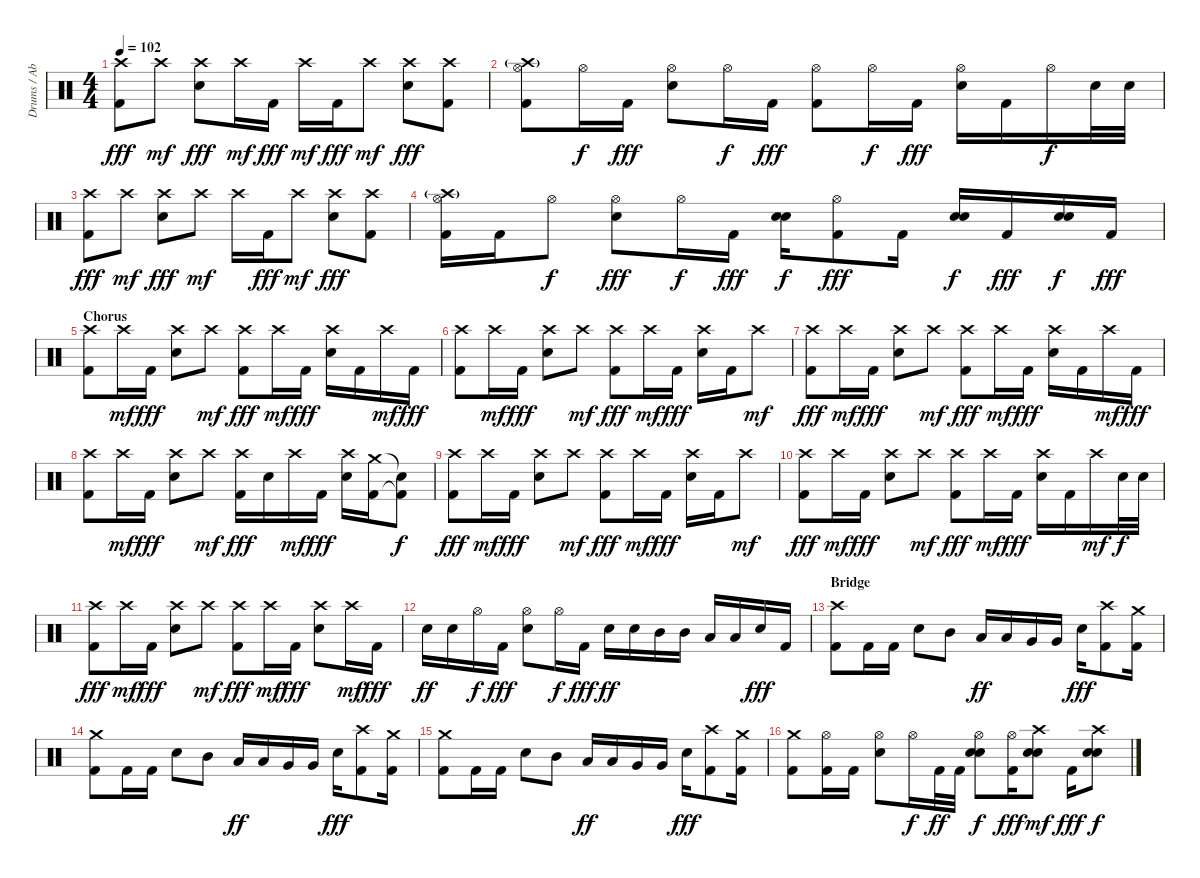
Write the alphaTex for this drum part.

\track ("Drums / Abe Cunningham" "Drums / Ab") {instrument percussion}
\staff {score}
\articulation defaults
\ts (4 4)
\tempo 102
\clef neutral
\ks c
("Crash high (hit)" "Kick (hit) 2").8{dy fff} "Crash high (hit)".8{dy mf} ("Crash high (hit)" "Electric Snare (hit)").8{dy fff} "Crash high (hit)".16{dy mf} "Kick (hit) 2".16{dy fff} "Crash high (hit)".16{dy mf} "Kick (hit) 2".16{dy fff} "Crash high (hit)".8{dy mf} ("Crash high (hit)" "Electric Snare (hit)").8{dy fff} ("Crash high (hit)" "Kick (hit) 2").8 |
("Crash high (hit)"{g} "Hi-Hat (open)" "Kick (hit) 2").8 "Hi-Hat (open)".16{dy f} "Kick (hit) 2".16{dy fff} ("Hi-Hat (open)" "Electric Snare (hit)").8 "Hi-Hat (open)".16{dy f} "Kick (hit) 2".16{dy fff} ("Hi-Hat (open)" "Kick (hit) 2").8 "Hi-Hat (open)".16{dy f} "Kick (hit) 2".16{dy fff} ("Hi-Hat (open)" "Electric Snare (hit)").16 "Kick (hit) 2".16 "Hi-Hat (open)".16{dy f} "Electric Snare (hit)".32 "Electric Snare (hit)".32 |
("Crash high (hit)" "Kick (hit) 2").8{dy fff} "Crash high (hit)".8{dy mf} ("Crash high (hit)" "Electric Snare (hit)").8{dy fff} "Crash high (hit)".8{dy mf} "Crash high (hit)".16 "Kick (hit) 2".16{dy fff} "Crash high (hit)".8{dy mf} ("Crash high (hit)" "Electric Snare (hit)").8{dy fff} ("Crash high (hit)" "Kick (hit) 2").8 |
("Crash high (hit)"{g} "Hi-Hat (open)" "Kick (hit) 2").16 "Kick (hit) 2".16 "Hi-Hat (open)".8{dy f} ("Hi-Hat (open)" "Electric Snare (hit)").8{dy fff} "Hi-Hat (open)".16{dy f} "Kick (hit) 2".16{dy fff} ("Electric Snare (hit)" "Electric Snare (hit)").16{dy f} ("Hi-Hat (open)" "Kick (hit) 2").8{dy fff} "Kick (hit) 2".16 ("Electric Snare (hit)" "Electric Snare (hit)").16{dy f} "Kick (hit) 2".16{dy fff} ("Electric Snare (hit)" "Electric Snare (hit)").16{dy f} "Kick (hit) 2".16{dy fff} |
\section ("" "Chorus")
("Crash high (hit)" "Kick (hit) 2").8 "Crash high (hit)".16{dy mf} "Kick (hit) 2".16{dy fff} ("Crash high (hit)" "Electric Snare (hit)").8 "Crash high (hit)".8{dy mf} ("Crash high (hit)" "Kick (hit) 2").8{dy fff} "Crash high (hit)".16{dy mf} "Kick (hit) 2".16{dy fff} ("Crash high (hit)" "Electric Snare (hit)").16 "Kick (hit) 2".16 "Crash high (hit)".16{dy mf} "Kick (hit) 2".16{dy fff} |
("Crash high (hit)" "Kick (hit) 2").8 "Crash high (hit)".16{dy mf} "Kick (hit) 2".16{dy fff} ("Crash high (hit)" "Electric Snare (hit)").8 "Crash high (hit)".8{dy mf} ("Crash high (hit)" "Kick (hit) 2").8{dy fff} "Crash high (hit)".16{dy mf} "Kick (hit) 2".16{dy fff} ("Crash high (hit)" "Electric Snare (hit)").16 "Kick (hit) 2".16 "Crash high (hit)".8{dy mf} |
("Crash high (hit)" "Kick (hit) 2").8{dy fff} "Crash high (hit)".16{dy mf} "Kick (hit) 2".16{dy fff} ("Crash high (hit)" "Electric Snare (hit)").8 "Crash high (hit)".8{dy mf} ("Crash high (hit)" "Kick (hit) 2").8{dy fff} "Crash high (hit)".16{dy mf} "Kick (hit) 2".16{dy fff} ("Crash high (hit)" "Electric Snare (hit)").16 "Kick (hit) 2".16 "Crash high (hit)".16{dy mf} "Kick (hit) 2".16{dy fff} |
("Crash high (hit)" "Kick (hit) 2").8 "Crash high (hit)".16{dy mf} "Kick (hit) 2".16{dy fff} ("Crash high (hit)" "Electric Snare (hit)").8 "Crash high (hit)".8{dy mf} ("Crash high (hit)" "Kick (hit) 2").16{dy fff} "Electric Snare (hit)".16 "Crash high (hit)".16{dy mf} "Kick (hit) 2".16{dy fff} ("Crash high (hit)" "Electric Snare (hit)").16 ("Crash medium (hit)" "Kick (hit) 2").16 ("Snare (hit)"{t} "Kick (hit) 2"{t}).8{dy f} |
("Crash high (hit)" "Kick (hit) 2").8{dy fff} "Crash high (hit)".16{dy mf} "Kick (hit) 2".16{dy fff} ("Crash high (hit)" "Electric Snare (hit)").8 "Crash high (hit)".8{dy mf} ("Crash high (hit)" "Kick (hit) 2").8{dy fff} "Crash high (hit)".16{dy mf} "Kick (hit) 2".16{dy fff} ("Crash high (hit)" "Electric Snare (hit)").16 "Kick (hit) 2".16 "Crash high (hit)".8{dy mf} |
("Crash high (hit)" "Kick (hit) 2").8{dy fff} "Crash high (hit)".16{dy mf} "Kick (hit) 2".16{dy fff} ("Crash high (hit)" "Electric Snare (hit)").8 "Crash high (hit)".8{dy mf} ("Crash high (hit)" "Kick (hit) 2").8{dy fff} "Crash high (hit)".16{dy mf} "Kick (hit) 2".16{dy fff} ("Crash high (hit)" "Electric Snare (hit)").16 "Kick (hit) 2".16 "Crash high (hit)".16{dy mf} "Electric Snare (hit)".32{dy f} "Electric Snare (hit)".32 |
("Crash high (hit)" "Kick (hit) 2").8{dy fff} "Crash high (hit)".16{dy mf} "Kick (hit) 2".16{dy fff} ("Crash high (hit)" "Electric Snare (hit)").8 "Crash high (hit)".8{dy mf} ("Crash high (hit)" "Kick (hit) 2").8{dy fff} "Crash high (hit)".16{dy mf} "Kick (hit) 2".16{dy fff} ("Crash high (hit)" "Electric Snare (hit)").8 "Crash high (hit)".16{dy mf} "Kick (hit) 2".16{dy fff} |
"Electric Snare (hit)".16{dy ff} "Electric Snare (hit)".16 "Hi-Hat (open)".16{dy f} "Kick (hit) 2".16{dy fff} ("Hi-Hat (open)" "Electric Snare (hit)").8 "Hi-Hat (open)".16{dy f} "Kick (hit) 2".16{dy fff} "Electric Snare (hit)".16{dy ff} "Electric Snare (hit)".16 "Mid Tom (hit)".16 "Mid Tom (hit)".16 "Low Tom (hit)".16 "Low Tom (hit)".16 "Electric Snare (hit)".16{dy fff} "Kick (hit) 2".16 |
\section ("" "Bridge")
("Crash high (hit)" "Kick (hit) 2").8 "Kick (hit) 2".16 "Kick (hit) 2".16 "Electric Snare (hit)".8 "Mid Tom (hit)".8 "Low Tom (hit)".16{dy ff} "Low Tom (hit)".16 "Very Low Tom (hit)".16 "Very Low Tom (hit)".16 "Electric Snare (hit)".16{dy fff} ("Crash high (hit)" "Kick (hit) 2").8 ("Crash medium (hit)" "Kick (hit) 2").16 |
("Crash medium (hit)" "Kick (hit) 2").8 "Kick (hit) 2".16 "Kick (hit) 2".16 "Electric Snare (hit)".8 "Mid Tom (hit)".8 "Low Tom (hit)".16{dy ff} "Low Tom (hit)".16 "Very Low Tom (hit)".16 "Very Low Tom (hit)".16 "Electric Snare (hit)".16{dy fff} ("Crash high (hit)" "Kick (hit) 2").8 ("Crash medium (hit)" "Kick (hit) 2").16 |
("Crash medium (hit)" "Kick (hit) 2").8 "Kick (hit) 2".16 "Kick (hit) 2".16 "Electric Snare (hit)".8 "Mid Tom (hit)".8 "Low Tom (hit)".16{dy ff} "Low Tom (hit)".16 "Very Low Tom (hit)".16 "Very Low Tom (hit)".16 "Electric Snare (hit)".16{dy fff} ("Crash high (hit)" "Kick (hit) 2").8 ("Crash medium (hit)" "Kick (hit) 2").16 |
("Crash medium (hit)" "Kick (hit) 2").8 ("Hi-Hat (open)" "Kick (hit) 2").16 "Kick (hit) 2".16 ("Hi-Hat (open)" "Electric Snare (hit)").8 "Hi-Hat (open)".16{dy f} "Kick (hit) 2".32{dy ff} "Kick (hit) 2".32 ("Hi-Hat (open)" "Electric Snare (hit)" "Electric Snare (hit)").8{dy f} ("Hi-Hat (open)" "Kick (hit) 2").16{dy fff} ("Crash high (hit)" "Electric Snare (hit)" "Electric Snare (hit)").8{dy mf} "Kick (hit) 2".16{dy fff} ("Crash high (hit)" "Electric Snare (hit)" "Electric Snare (hit)").8{dy f}
